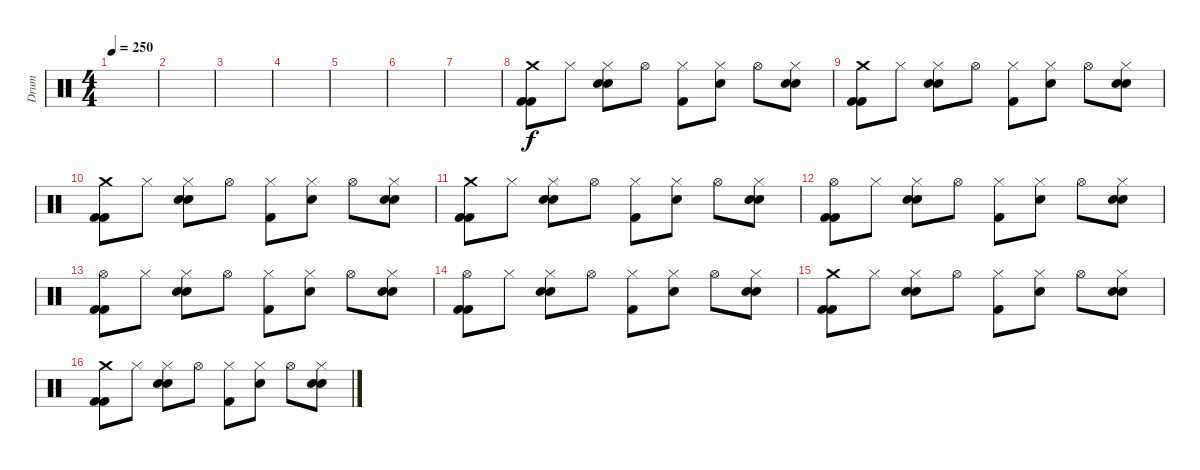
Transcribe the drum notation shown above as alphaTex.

\track ("Drum" "Drum") {instrument percussion}
\staff {score}
\articulation defaults
\ts (4 4)
\tempo 250
\clef neutral
\ks c
|
|
|
|
|
|
|
("Crash medium (hit)" "Kick (hit) 2" "Kick (hit) 2").8 "Hi-Hat (closed)".8 ("Hi-Hat (closed)" "Snare (hit) 2" "Snare (hit) 2").8 "Hi-Hat (open)".8 ("Hi-Hat (closed)" "Kick (hit) 2").8 ("Hi-Hat (closed)" "Snare (hit) 2").8 "Hi-Hat (open)".8 ("Hi-Hat (closed)" "Snare (hit) 2" "Snare (hit) 2").8 |
("Crash medium (hit)" "Kick (hit) 2" "Kick (hit) 2").8 "Hi-Hat (closed)".8 ("Hi-Hat (closed)" "Snare (hit) 2" "Snare (hit) 2").8 "Hi-Hat (open)".8 ("Hi-Hat (closed)" "Kick (hit) 2").8 ("Hi-Hat (closed)" "Snare (hit) 2").8 "Hi-Hat (open)".8 ("Hi-Hat (closed)" "Snare (hit) 2" "Snare (hit) 2").8 |
("Crash medium (hit)" "Kick (hit) 2" "Kick (hit) 2").8 "Hi-Hat (closed)".8 ("Hi-Hat (closed)" "Snare (hit) 2" "Snare (hit) 2").8 "Hi-Hat (open)".8 ("Hi-Hat (closed)" "Kick (hit) 2").8 ("Hi-Hat (closed)" "Snare (hit) 2").8 "Hi-Hat (open)".8 ("Hi-Hat (closed)" "Snare (hit) 2" "Snare (hit) 2").8 |
("Crash medium (hit)" "Kick (hit) 2" "Kick (hit) 2").8 "Hi-Hat (closed)".8 ("Hi-Hat (closed)" "Snare (hit) 2" "Snare (hit) 2").8 "Hi-Hat (open)".8 ("Hi-Hat (closed)" "Kick (hit) 2").8 ("Hi-Hat (closed)" "Snare (hit) 2").8 "Hi-Hat (open)".8 ("Hi-Hat (closed)" "Snare (hit) 2" "Snare (hit) 2").8 |
("Hi-Hat (open)" "Kick (hit) 2" "Kick (hit) 2").8 "Hi-Hat (closed)".8 ("Hi-Hat (closed)" "Snare (hit) 2" "Snare (hit) 2").8 "Hi-Hat (open)".8 ("Hi-Hat (closed)" "Kick (hit) 2").8 ("Hi-Hat (closed)" "Snare (hit) 2").8 "Hi-Hat (open)".8 ("Hi-Hat (closed)" "Snare (hit) 2" "Snare (hit) 2").8 |
("Hi-Hat (open)" "Kick (hit) 2" "Kick (hit) 2").8 "Hi-Hat (closed)".8 ("Hi-Hat (closed)" "Snare (hit) 2" "Snare (hit) 2").8 "Hi-Hat (open)".8 ("Hi-Hat (closed)" "Kick (hit) 2").8 ("Hi-Hat (closed)" "Snare (hit) 2").8 "Hi-Hat (open)".8 ("Hi-Hat (closed)" "Snare (hit) 2" "Snare (hit) 2").8 |
("Hi-Hat (open)" "Kick (hit) 2" "Kick (hit) 2").8 "Hi-Hat (closed)".8 ("Hi-Hat (closed)" "Snare (hit) 2" "Snare (hit) 2").8 "Hi-Hat (open)".8 ("Hi-Hat (closed)" "Kick (hit) 2").8 ("Hi-Hat (closed)" "Snare (hit) 2").8 "Hi-Hat (open)".8 ("Hi-Hat (closed)" "Snare (hit) 2" "Snare (hit) 2").8 |
("Crash medium (hit)" "Kick (hit) 2" "Kick (hit) 2").8 "Hi-Hat (closed)".8 ("Hi-Hat (closed)" "Snare (hit) 2" "Snare (hit) 2").8 "Hi-Hat (open)".8 ("Hi-Hat (closed)" "Kick (hit) 2").8 ("Hi-Hat (closed)" "Snare (hit) 2").8 "Hi-Hat (open)".8 ("Hi-Hat (closed)" "Snare (hit) 2" "Snare (hit) 2").8 |
("Crash medium (hit)" "Kick (hit) 2" "Kick (hit) 2").8 "Hi-Hat (closed)".8 ("Hi-Hat (closed)" "Snare (hit) 2" "Snare (hit) 2").8 "Hi-Hat (open)".8 ("Hi-Hat (closed)" "Kick (hit) 2").8 ("Hi-Hat (closed)" "Snare (hit) 2").8 "Hi-Hat (open)".8 ("Hi-Hat (closed)" "Snare (hit) 2" "Snare (hit) 2").8
